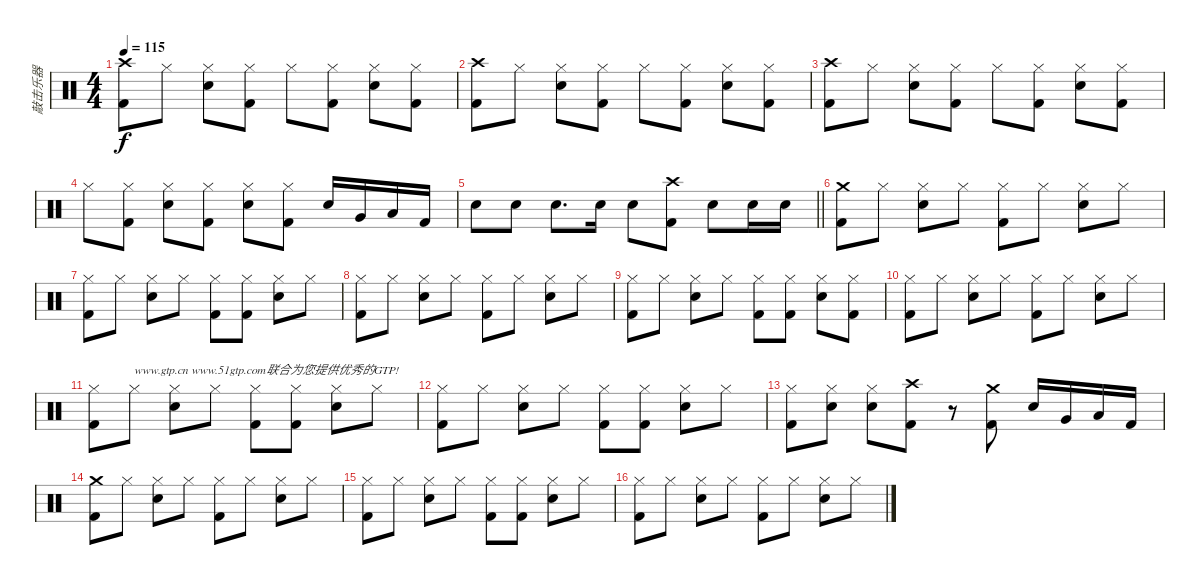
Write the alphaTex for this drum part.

\track ("敲击乐器" "敲击乐器") {instrument percussion}
\staff {score}
\articulation defaults
\ts (4 4)
\tempo 115
\clef neutral
\ks c
("Crash high (hit)" "Kick (hit) 2").8{dy f} "Hi-Hat (closed)".8 ("Electric Snare (hit)" "Hi-Hat (closed)").8 ("Kick (hit) 2" "Hi-Hat (closed)").8 "Hi-Hat (closed)".8 ("Kick (hit) 2" "Hi-Hat (closed)").8 ("Electric Snare (hit)" "Hi-Hat (closed)").8 ("Kick (hit) 2" "Hi-Hat (closed)").8 |
("Crash high (hit)" "Kick (hit) 2").8 "Hi-Hat (closed)".8 ("Electric Snare (hit)" "Hi-Hat (closed)").8 ("Kick (hit) 2" "Hi-Hat (closed)").8 "Hi-Hat (closed)".8 ("Kick (hit) 2" "Hi-Hat (closed)").8 ("Electric Snare (hit)" "Hi-Hat (closed)").8 ("Kick (hit) 2" "Hi-Hat (closed)").8 |
("Crash high (hit)" "Kick (hit) 2").8 "Hi-Hat (closed)".8 ("Electric Snare (hit)" "Hi-Hat (closed)").8 ("Kick (hit) 2" "Hi-Hat (closed)").8 "Hi-Hat (closed)".8 ("Kick (hit) 2" "Hi-Hat (closed)").8 ("Electric Snare (hit)" "Hi-Hat (closed)").8 ("Kick (hit) 2" "Hi-Hat (closed)").8 |
"Hi-Hat (closed)".8 ("Hi-Hat (closed)" "Kick (hit) 2").8 ("Electric Snare (hit)" "Hi-Hat (closed)").8 ("Kick (hit) 2" "Hi-Hat (closed)").8 ("Electric Snare (hit)" "Hi-Hat (closed)").8 ("Kick (hit) 2" "Hi-Hat (closed)").8 "Electric Snare (hit)".16 "Very Low Tom (hit)".16 "Low Floor Tom (hit)".16 "Kick (hit) 2".16 |
\barLineRight lightlight "Electric Snare (hit)".8 "Electric Snare (hit)".8 "Electric Snare (hit)".8{d} "Electric Snare (hit)".16 "Electric Snare (hit)".8
("Crash high (hit)" "Kick (hit) 2").8 "Electric Snare (hit)".8 "Electric Snare (hit)".16 "Electric Snare (hit)".16 |
("Crash medium (hit)" "Kick (hit) 2").8 "Hi-Hat (closed)".8 ("Electric Snare (hit)" "Hi-Hat (closed)").8 "Hi-Hat (closed)".8 ("Kick (hit) 2" "Hi-Hat (closed)").8 "Hi-Hat (closed)".8 ("Electric Snare (hit)" "Hi-Hat (closed)").8 "Hi-Hat (closed)".8 |
("Hi-Hat (closed)" "Kick (hit) 2").8 "Hi-Hat (closed)".8 ("Hi-Hat (closed)" "Electric Snare (hit)").8 "Hi-Hat (closed)".8 ("Hi-Hat (closed)" "Kick (hit) 2").8 ("Hi-Hat (closed)" "Kick (hit) 2").8 ("Hi-Hat (closed)" "Electric Snare (hit)").8 "Hi-Hat (closed)".8 |
("Hi-Hat (closed)" "Kick (hit) 2").8 "Hi-Hat (closed)".8 ("Electric Snare (hit)" "Hi-Hat (closed)").8 "Hi-Hat (closed)".8 ("Kick (hit) 2" "Hi-Hat (closed)").8 "Hi-Hat (closed)".8 ("Electric Snare (hit)" "Hi-Hat (closed)").8 "Hi-Hat (closed)".8 |
("Hi-Hat (closed)" "Kick (hit) 2").8 "Hi-Hat (closed)".8 ("Hi-Hat (closed)" "Electric Snare (hit)").8 "Hi-Hat (closed)".8 ("Hi-Hat (closed)" "Kick (hit) 2").8 ("Hi-Hat (closed)" "Kick (hit) 2").8 ("Hi-Hat (closed)" "Electric Snare (hit)").8 ("Hi-Hat (closed)" "Kick (hit) 2").8 |
("Hi-Hat (closed)" "Kick (hit) 2").8 "Hi-Hat (closed)".8 ("Electric Snare (hit)" "Hi-Hat (closed)").8 "Hi-Hat (closed)".8 ("Kick (hit) 2" "Hi-Hat (closed)").8 "Hi-Hat (closed)".8 ("Electric Snare (hit)" "Hi-Hat (closed)").8 "Hi-Hat (closed)".8 |
("Hi-Hat (closed)" "Kick (hit) 2").8 "Hi-Hat (closed)".8{txt "www.gtp.cn www.51gtp.com联合为您提供优秀的GTP!"} ("Hi-Hat (closed)" "Electric Snare (hit)").8 "Hi-Hat (closed)".8 ("Hi-Hat (closed)" "Kick (hit) 2").8 ("Hi-Hat (closed)" "Kick (hit) 2").8 ("Hi-Hat (closed)" "Electric Snare (hit)").8 "Hi-Hat (closed)".8 |
("Hi-Hat (closed)" "Kick (hit) 2").8 "Hi-Hat (closed)".8 ("Electric Snare (hit)" "Hi-Hat (closed)").8 "Hi-Hat (closed)".8 ("Kick (hit) 2" "Hi-Hat (closed)").8 ("Kick (hit) 2" "Hi-Hat (closed)").8 ("Electric Snare (hit)" "Hi-Hat (closed)").8 "Hi-Hat (closed)".8 |
("Hi-Hat (closed)" "Kick (hit) 2").8 ("Hi-Hat (closed)" "Electric Snare (hit)").8 ("Hi-Hat (closed)" "Electric Snare (hit)").8 ("Crash high (hit)" "Kick (hit) 2").8 r.8 ("Crash medium (hit)" "Kick (hit) 2").8 "Electric Snare (hit)".16 "Very Low Tom (hit)".16 "Low Floor Tom (hit)".16 "Kick (hit) 2".16 |
("Crash medium (hit)" "Kick (hit) 2").8 "Hi-Hat (closed)".8 ("Electric Snare (hit)" "Hi-Hat (closed)").8 "Hi-Hat (closed)".8 ("Kick (hit) 2" "Hi-Hat (closed)").8 "Hi-Hat (closed)".8 ("Electric Snare (hit)" "Hi-Hat (closed)").8 "Hi-Hat (closed)".8 |
("Hi-Hat (closed)" "Kick (hit) 2").8 "Hi-Hat (closed)".8 ("Hi-Hat (closed)" "Electric Snare (hit)").8 "Hi-Hat (closed)".8 ("Hi-Hat (closed)" "Kick (hit) 2").8 ("Hi-Hat (closed)" "Kick (hit) 2").8 ("Hi-Hat (closed)" "Electric Snare (hit)").8 "Hi-Hat (closed)".8 |
("Hi-Hat (closed)" "Kick (hit) 2").8 "Hi-Hat (closed)".8 ("Electric Snare (hit)" "Hi-Hat (closed)").8 "Hi-Hat (closed)".8 ("Kick (hit) 2" "Hi-Hat (closed)").8 "Hi-Hat (closed)".8 ("Electric Snare (hit)" "Hi-Hat (closed)").8 "Hi-Hat (closed)".8
